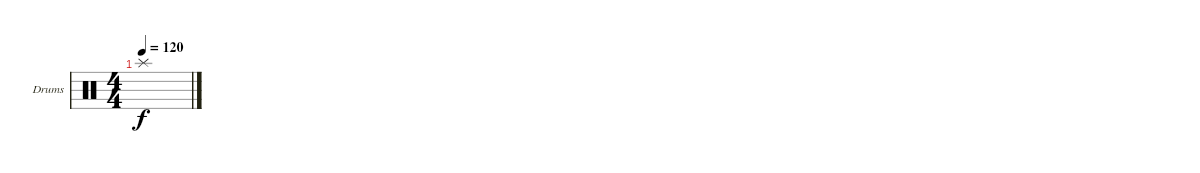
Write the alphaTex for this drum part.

\bracketExtendMode groupsimilarinstruments
\firstSystemTrackNameOrientation horizontal
\otherSystemsTrackNameOrientation horizontal
\track ("Drumkit" "Drums") {instrument percussion}
\staff {score}
\articulation defaults
\ts (4 4)
\tempo 120
\clef neutral
\ks c "Splash (hit)".1{dy f}
